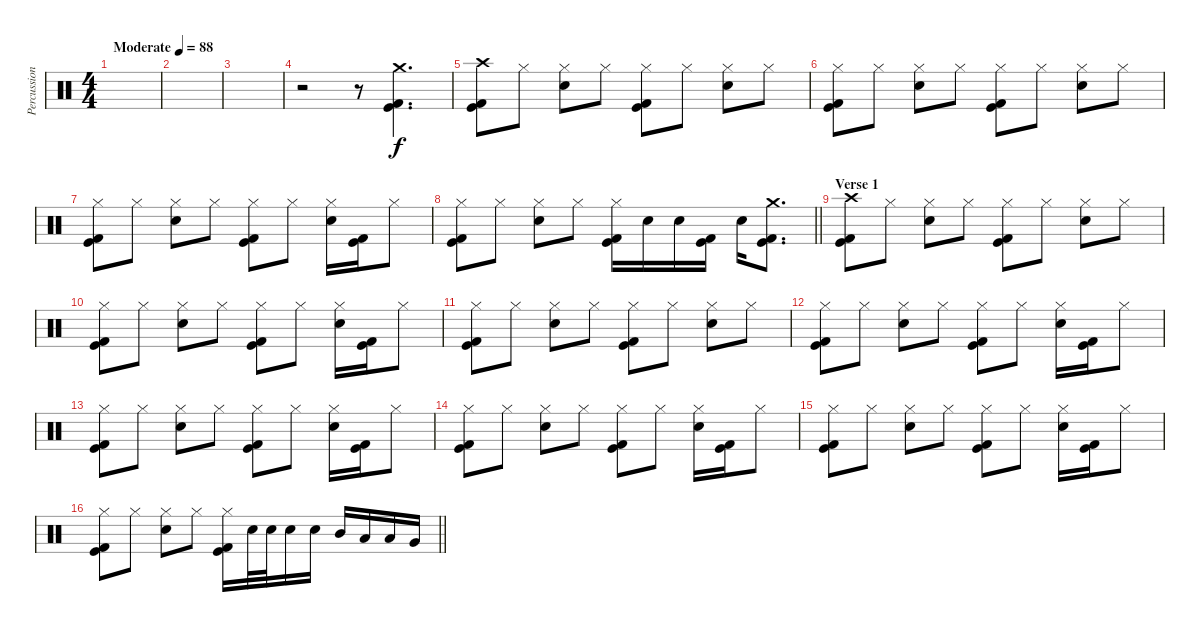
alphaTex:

\track ("Percussion" "Percussion") {instrument percussion}
\staff {score}
\articulation defaults
\ts (4 4)
\tempo (88 "Moderate")
\clef neutral
\ks c
|
|
|
r.2 r.8 ("Crash medium (hit)" "Kick (hit)" "Kick (hit) 2").4{d} |
("Crash high (hit)" "Kick (hit)" "Kick (hit) 2").8 "Hi-Hat (closed)".8 ("Hi-Hat (closed)" "Electric Snare (hit)").8 "Hi-Hat (closed)".8 ("Hi-Hat (closed)" "Kick (hit)" "Kick (hit) 2").8 "Hi-Hat (closed)".8 ("Hi-Hat (closed)" "Electric Snare (hit)").8 "Hi-Hat (closed)".8 |
("Hi-Hat (closed)" "Kick (hit)" "Kick (hit) 2").8 "Hi-Hat (closed)".8 ("Hi-Hat (closed)" "Electric Snare (hit)").8 "Hi-Hat (closed)".8 ("Hi-Hat (closed)" "Kick (hit)" "Kick (hit) 2").8 "Hi-Hat (closed)".8 ("Hi-Hat (closed)" "Electric Snare (hit)").8 "Hi-Hat (closed)".8 |
("Hi-Hat (closed)" "Kick (hit)" "Kick (hit) 2").8 "Hi-Hat (closed)".8 ("Hi-Hat (closed)" "Electric Snare (hit)").8 "Hi-Hat (closed)".8 ("Hi-Hat (closed)" "Kick (hit)" "Kick (hit) 2").8 "Hi-Hat (closed)".8 ("Hi-Hat (closed)" "Electric Snare (hit)").16 ("Kick (hit)" "Kick (hit) 2").16 "Hi-Hat (closed)".8 |
\barLineRight lightlight
("Hi-Hat (closed)" "Kick (hit)" "Kick (hit) 2").8 "Hi-Hat (closed)".8 ("Hi-Hat (closed)" "Electric Snare (hit)").8 "Hi-Hat (closed)".8 ("Hi-Hat (closed)" "Kick (hit)" "Kick (hit) 2").16 "Electric Snare (hit)".16 "Electric Snare (hit)".16 ("Kick (hit)" "Kick (hit) 2").16 "Electric Snare (hit)".16 ("Crash medium (hit)" "Kick (hit)" "Kick (hit) 2").8{d} |
\section ("" "Verse 1")
("Crash high (hit)" "Kick (hit)" "Kick (hit) 2").8 "Hi-Hat (closed)".8 ("Hi-Hat (closed)" "Electric Snare (hit)").8 "Hi-Hat (closed)".8 ("Hi-Hat (closed)" "Kick (hit)" "Kick (hit) 2").8 "Hi-Hat (closed)".8 ("Hi-Hat (closed)" "Electric Snare (hit)").8 "Hi-Hat (closed)".8 |
("Hi-Hat (closed)" "Kick (hit)" "Kick (hit) 2").8 "Hi-Hat (closed)".8 ("Hi-Hat (closed)" "Electric Snare (hit)").8 "Hi-Hat (closed)".8 ("Hi-Hat (closed)" "Kick (hit)" "Kick (hit) 2").8 "Hi-Hat (closed)".8 ("Hi-Hat (closed)" "Electric Snare (hit)").16 ("Kick (hit)" "Kick (hit) 2").16 "Hi-Hat (closed)".8 |
("Hi-Hat (closed)" "Kick (hit)" "Kick (hit) 2").8 "Hi-Hat (closed)".8 ("Hi-Hat (closed)" "Electric Snare (hit)").8 "Hi-Hat (closed)".8 ("Hi-Hat (closed)" "Kick (hit)" "Kick (hit) 2").8 "Hi-Hat (closed)".8 ("Hi-Hat (closed)" "Electric Snare (hit)").8 "Hi-Hat (closed)".8 |
("Hi-Hat (closed)" "Kick (hit)" "Kick (hit) 2").8 "Hi-Hat (closed)".8 ("Hi-Hat (closed)" "Electric Snare (hit)").8 "Hi-Hat (closed)".8 ("Hi-Hat (closed)" "Kick (hit)" "Kick (hit) 2").8 "Hi-Hat (closed)".8 ("Hi-Hat (closed)" "Electric Snare (hit)").16 ("Kick (hit)" "Kick (hit) 2").16 "Hi-Hat (closed)".8 |
("Hi-Hat (closed)" "Kick (hit)" "Kick (hit) 2").8 "Hi-Hat (closed)".8 ("Hi-Hat (closed)" "Electric Snare (hit)").8 "Hi-Hat (closed)".8 ("Hi-Hat (closed)" "Kick (hit)" "Kick (hit) 2").8 "Hi-Hat (closed)".8 ("Hi-Hat (closed)" "Electric Snare (hit)").16 ("Kick (hit)" "Kick (hit) 2").16 "Hi-Hat (closed)".8 |
("Hi-Hat (closed)" "Kick (hit)" "Kick (hit) 2").8 "Hi-Hat (closed)".8 ("Hi-Hat (closed)" "Electric Snare (hit)").8 "Hi-Hat (closed)".8 ("Hi-Hat (closed)" "Kick (hit)" "Kick (hit) 2").8 "Hi-Hat (closed)".8 ("Hi-Hat (closed)" "Electric Snare (hit)").16 ("Kick (hit)" "Kick (hit) 2").16 "Hi-Hat (closed)".8 |
("Hi-Hat (closed)" "Kick (hit)" "Kick (hit) 2").8 "Hi-Hat (closed)".8 ("Hi-Hat (closed)" "Electric Snare (hit)").8 "Hi-Hat (closed)".8 ("Hi-Hat (closed)" "Kick (hit)" "Kick (hit) 2").8 "Hi-Hat (closed)".8 ("Hi-Hat (closed)" "Electric Snare (hit)").16 ("Kick (hit)" "Kick (hit) 2").16 "Hi-Hat (closed)".8 |
\barLineRight lightlight
("Hi-Hat (closed)" "Kick (hit)" "Kick (hit) 2").8 "Hi-Hat (closed)".8 ("Hi-Hat (closed)" "Electric Snare (hit)").8 "Hi-Hat (closed)".8 ("Hi-Hat (closed)" "Kick (hit)" "Kick (hit) 2").16 "Electric Snare (hit)".32 "Electric Snare (hit)".32 "Electric Snare (hit)".16 "Electric Snare (hit)".16 "Mid Tom (hit)".16 "Low Tom (hit)".16 "Low Tom (hit)".16 "Very Low Tom (hit)".16
